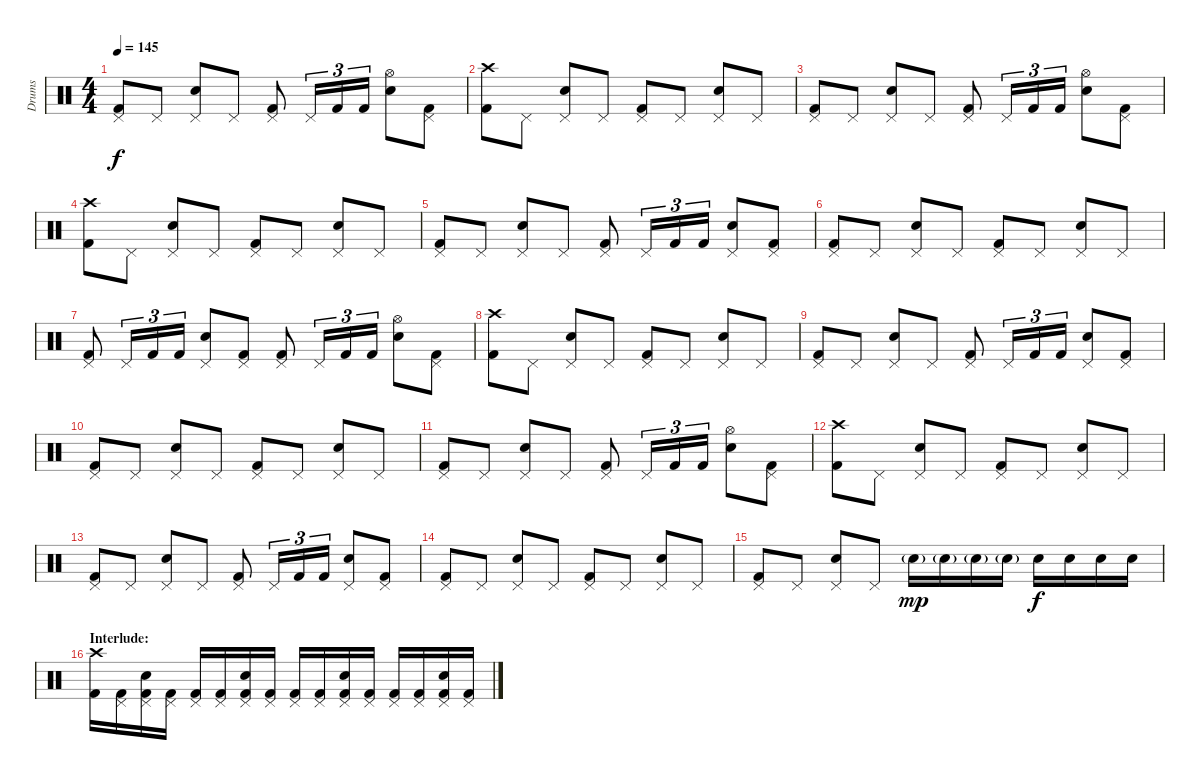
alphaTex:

\track ("Drums" "Drums") {instrument percussion}
\staff {score}
\articulation defaults
\ts (4 4)
\tempo 145
\clef neutral
\ks c
("Pedal Hi-Hat (hit)" "Kick (hit) 2").8{dy f} "Pedal Hi-Hat (hit)".8 ("Pedal Hi-Hat (hit)" "Electric Snare (hit)").8 "Pedal Hi-Hat (hit)".8 ("Pedal Hi-Hat (hit)" "Kick (hit) 2").8 "Pedal Hi-Hat (hit)".16{tu (3 2)} "Kick (hit) 2".16{tu (3 2)} "Kick (hit) 2".16{tu (3 2)} ("Hi-Hat (open)" "Electric Snare (hit)").8 ("Pedal Hi-Hat (hit)" "Kick (hit) 2").8 |
("Crash high (hit)" "Kick (hit) 2").8 "Pedal Hi-Hat (hit)".8 ("Pedal Hi-Hat (hit)" "Electric Snare (hit)").8 "Pedal Hi-Hat (hit)".8 ("Pedal Hi-Hat (hit)" "Kick (hit) 2").8 "Pedal Hi-Hat (hit)".8 ("Pedal Hi-Hat (hit)" "Electric Snare (hit)").8 "Pedal Hi-Hat (hit)".8 |
("Pedal Hi-Hat (hit)" "Kick (hit) 2").8 "Pedal Hi-Hat (hit)".8 ("Pedal Hi-Hat (hit)" "Electric Snare (hit)").8 "Pedal Hi-Hat (hit)".8 ("Pedal Hi-Hat (hit)" "Kick (hit) 2").8 "Pedal Hi-Hat (hit)".16{tu (3 2)} "Kick (hit) 2".16{tu (3 2)} "Kick (hit) 2".16{tu (3 2)} ("Hi-Hat (open)" "Electric Snare (hit)").8 ("Pedal Hi-Hat (hit)" "Kick (hit) 2").8 |
("Crash high (hit)" "Kick (hit) 2").8 "Pedal Hi-Hat (hit)".8 ("Pedal Hi-Hat (hit)" "Electric Snare (hit)").8 "Pedal Hi-Hat (hit)".8 ("Pedal Hi-Hat (hit)" "Kick (hit) 2").8 "Pedal Hi-Hat (hit)".8 ("Pedal Hi-Hat (hit)" "Electric Snare (hit)").8 "Pedal Hi-Hat (hit)".8 |
("Pedal Hi-Hat (hit)" "Kick (hit) 2").8 "Pedal Hi-Hat (hit)".8 ("Pedal Hi-Hat (hit)" "Electric Snare (hit)").8 "Pedal Hi-Hat (hit)".8 ("Pedal Hi-Hat (hit)" "Kick (hit) 2").8 "Pedal Hi-Hat (hit)".16{tu (3 2)} "Kick (hit) 2".16{tu (3 2)} "Kick (hit) 2".16{tu (3 2)} ("Pedal Hi-Hat (hit)" "Electric Snare (hit)").8 ("Pedal Hi-Hat (hit)" "Kick (hit) 2").8 |
("Pedal Hi-Hat (hit)" "Kick (hit) 2").8 "Pedal Hi-Hat (hit)".8 ("Pedal Hi-Hat (hit)" "Electric Snare (hit)").8 "Pedal Hi-Hat (hit)".8 ("Pedal Hi-Hat (hit)" "Kick (hit) 2").8 "Pedal Hi-Hat (hit)".8 ("Pedal Hi-Hat (hit)" "Electric Snare (hit)").8 "Pedal Hi-Hat (hit)".8 |
("Pedal Hi-Hat (hit)" "Kick (hit) 2").8 "Pedal Hi-Hat (hit)".16{tu (3 2)} "Kick (hit) 2".16{tu (3 2)} "Kick (hit) 2".16{tu (3 2)} ("Pedal Hi-Hat (hit)" "Electric Snare (hit)").8 ("Pedal Hi-Hat (hit)" "Kick (hit) 2").8 ("Pedal Hi-Hat (hit)" "Kick (hit) 2").8 "Pedal Hi-Hat (hit)".16{tu (3 2)} "Kick (hit) 2".16{tu (3 2)} "Kick (hit) 2".16{tu (3 2)} ("Hi-Hat (open)" "Electric Snare (hit)").8 ("Pedal Hi-Hat (hit)" "Kick (hit) 2").8 |
("Crash high (hit)" "Kick (hit) 2").8 "Pedal Hi-Hat (hit)".8 ("Pedal Hi-Hat (hit)" "Electric Snare (hit)").8 "Pedal Hi-Hat (hit)".8 ("Pedal Hi-Hat (hit)" "Kick (hit) 2").8 "Pedal Hi-Hat (hit)".8 ("Pedal Hi-Hat (hit)" "Electric Snare (hit)").8 "Pedal Hi-Hat (hit)".8 |
("Pedal Hi-Hat (hit)" "Kick (hit) 2").8 "Pedal Hi-Hat (hit)".8 ("Pedal Hi-Hat (hit)" "Electric Snare (hit)").8 "Pedal Hi-Hat (hit)".8 ("Pedal Hi-Hat (hit)" "Kick (hit) 2").8 "Pedal Hi-Hat (hit)".16{tu (3 2)} "Kick (hit) 2".16{tu (3 2)} "Kick (hit) 2".16{tu (3 2)} ("Pedal Hi-Hat (hit)" "Electric Snare (hit)").8 ("Pedal Hi-Hat (hit)" "Kick (hit) 2").8 |
("Pedal Hi-Hat (hit)" "Kick (hit) 2").8 "Pedal Hi-Hat (hit)".8 ("Pedal Hi-Hat (hit)" "Electric Snare (hit)").8 "Pedal Hi-Hat (hit)".8 ("Pedal Hi-Hat (hit)" "Kick (hit) 2").8 "Pedal Hi-Hat (hit)".8 ("Pedal Hi-Hat (hit)" "Electric Snare (hit)").8 "Pedal Hi-Hat (hit)".8 |
("Pedal Hi-Hat (hit)" "Kick (hit) 2").8 "Pedal Hi-Hat (hit)".8 ("Pedal Hi-Hat (hit)" "Electric Snare (hit)").8 "Pedal Hi-Hat (hit)".8 ("Pedal Hi-Hat (hit)" "Kick (hit) 2").8 "Pedal Hi-Hat (hit)".16{tu (3 2)} "Kick (hit) 2".16{tu (3 2)} "Kick (hit) 2".16{tu (3 2)} ("Hi-Hat (open)" "Electric Snare (hit)").8 ("Pedal Hi-Hat (hit)" "Kick (hit) 2").8 |
("Crash high (hit)" "Kick (hit) 2").8 "Pedal Hi-Hat (hit)".8 ("Pedal Hi-Hat (hit)" "Electric Snare (hit)").8 "Pedal Hi-Hat (hit)".8 ("Pedal Hi-Hat (hit)" "Kick (hit) 2").8 "Pedal Hi-Hat (hit)".8 ("Pedal Hi-Hat (hit)" "Electric Snare (hit)").8 "Pedal Hi-Hat (hit)".8 |
("Pedal Hi-Hat (hit)" "Kick (hit) 2").8 "Pedal Hi-Hat (hit)".8 ("Pedal Hi-Hat (hit)" "Electric Snare (hit)").8 "Pedal Hi-Hat (hit)".8 ("Pedal Hi-Hat (hit)" "Kick (hit) 2").8 "Pedal Hi-Hat (hit)".16{tu (3 2)} "Kick (hit) 2".16{tu (3 2)} "Kick (hit) 2".16{tu (3 2)} ("Pedal Hi-Hat (hit)" "Electric Snare (hit)").8 ("Pedal Hi-Hat (hit)" "Kick (hit) 2").8 |
("Pedal Hi-Hat (hit)" "Kick (hit) 2").8 "Pedal Hi-Hat (hit)".8 ("Pedal Hi-Hat (hit)" "Electric Snare (hit)").8 "Pedal Hi-Hat (hit)".8 ("Pedal Hi-Hat (hit)" "Kick (hit) 2").8 "Pedal Hi-Hat (hit)".8 ("Pedal Hi-Hat (hit)" "Electric Snare (hit)").8 "Pedal Hi-Hat (hit)".8 |
("Pedal Hi-Hat (hit)" "Kick (hit) 2").8 "Pedal Hi-Hat (hit)".8 ("Pedal Hi-Hat (hit)" "Electric Snare (hit)").8 "Pedal Hi-Hat (hit)".8 "Electric Snare (hit)"{g}.16{dy mp} "Electric Snare (hit)"{g}.16 "Electric Snare (hit)"{g}.16 "Electric Snare (hit)"{g}.16 "Electric Snare (hit)".16{dy f} "Electric Snare (hit)".16 "Electric Snare (hit)".16 "Electric Snare (hit)".16 |
\section ("" "Interlude:")
("Crash high (hit)" "Kick (hit) 2").16 ("Pedal Hi-Hat (hit)" "Kick (hit) 2").16 ("Pedal Hi-Hat (hit)" "Electric Snare (hit)" "Kick (hit) 2").16 ("Pedal Hi-Hat (hit)" "Kick (hit) 2").16 ("Pedal Hi-Hat (hit)" "Kick (hit) 2").16 ("Pedal Hi-Hat (hit)" "Kick (hit) 2").16 ("Pedal Hi-Hat (hit)" "Electric Snare (hit)" "Kick (hit) 2").16 ("Pedal Hi-Hat (hit)" "Kick (hit) 2").16 ("Pedal Hi-Hat (hit)" "Kick (hit) 2").16 ("Pedal Hi-Hat (hit)" "Kick (hit) 2").16 ("Pedal Hi-Hat (hit)" "Electric Snare (hit)" "Kick (hit) 2").16 ("Pedal Hi-Hat (hit)" "Kick (hit) 2").16 ("Pedal Hi-Hat (hit)" "Kick (hit) 2").16 ("Pedal Hi-Hat (hit)" "Kick (hit) 2").16 ("Pedal Hi-Hat (hit)" "Electric Snare (hit)" "Kick (hit) 2").16 ("Pedal Hi-Hat (hit)" "Kick (hit) 2").16
